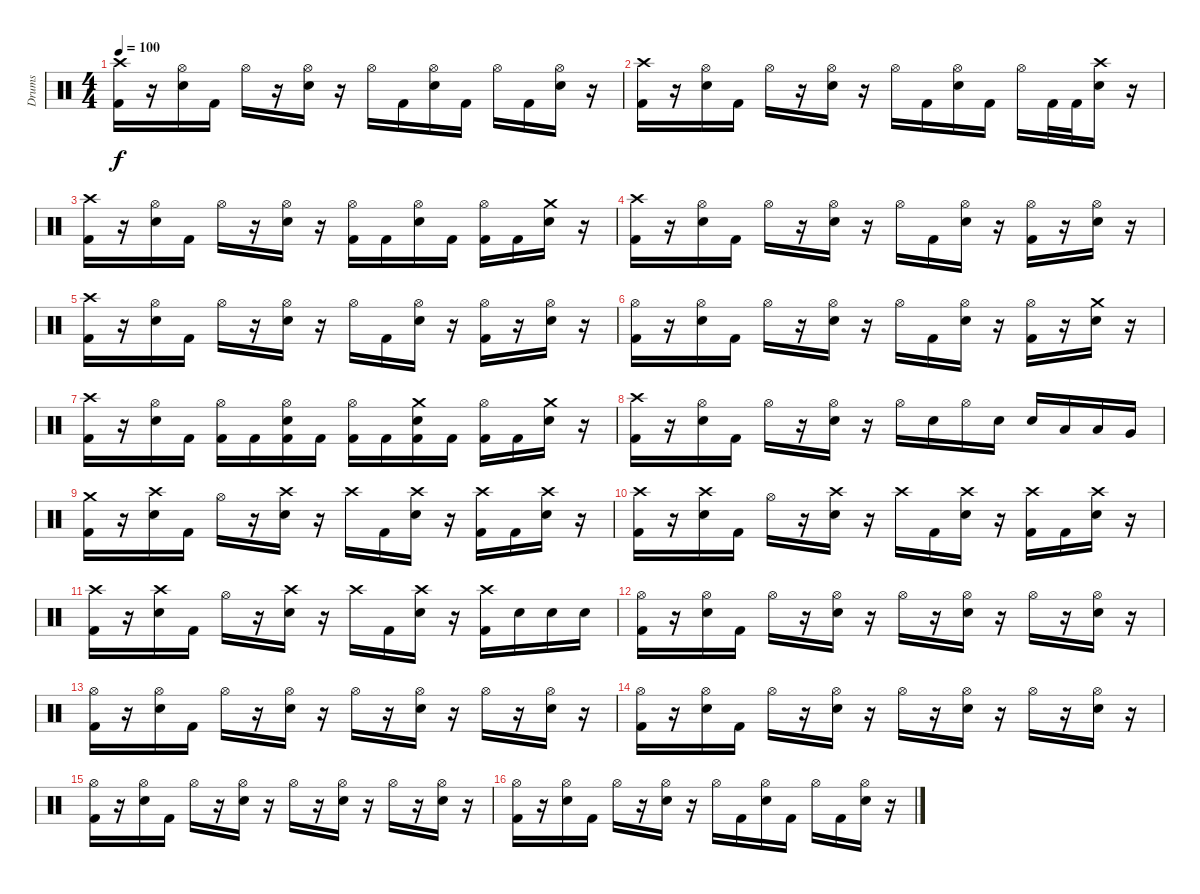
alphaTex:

\track ("Drums" "Drums") {instrument percussion}
\staff {score}
\articulation defaults
\ts (4 4)
\tempo 100
\clef neutral
\ks c
("Crash high (hit)" "Kick (hit) 2").16{dy f} r.16 ("Hi-Hat (open)" "Electric Snare (hit)").16 "Kick (hit) 2".16 "Hi-Hat (open)".16 r.16 ("Hi-Hat (open)" "Electric Snare (hit)").16 r.16 "Hi-Hat (open)".16 "Kick (hit) 2".16 ("Hi-Hat (open)" "Electric Snare (hit)").16 "Kick (hit) 2".16 "Hi-Hat (open)".16 "Kick (hit) 2".16 ("Hi-Hat (open)" "Electric Snare (hit)").16 r.16 |
("Crash high (hit)" "Kick (hit) 2").16 r.16 ("Hi-Hat (open)" "Electric Snare (hit)").16 "Kick (hit) 2".16 "Hi-Hat (open)".16 r.16 ("Hi-Hat (open)" "Electric Snare (hit)").16 r.16 "Hi-Hat (open)".16 "Kick (hit) 2".16 ("Hi-Hat (open)" "Electric Snare (hit)").16 "Kick (hit) 2".16 "Hi-Hat (open)".16 "Kick (hit) 2".32 "Kick (hit) 2".32 ("Crash high (hit)" "Electric Snare (hit)").16 r.16 |
("Crash high (hit)" "Kick (hit) 2").16 r.16 ("Hi-Hat (open)" "Electric Snare (hit)").16 "Kick (hit) 2".16 "Hi-Hat (open)".16 r.16 ("Hi-Hat (open)" "Electric Snare (hit)").16 r.16 ("Hi-Hat (open)" "Kick (hit) 2").16 "Kick (hit) 2".16 ("Hi-Hat (open)" "Electric Snare (hit)").16 "Kick (hit) 2".16 ("Hi-Hat (open)" "Kick (hit) 2").16 "Kick (hit) 2".16 ("Crash medium (hit)" "Electric Snare (hit)").16 r.16 |
("Crash high (hit)" "Kick (hit) 2").16 r.16 ("Hi-Hat (open)" "Electric Snare (hit)").16 "Kick (hit) 2".16 "Hi-Hat (open)".16 r.16 ("Hi-Hat (open)" "Electric Snare (hit)").16 r.16 "Hi-Hat (open)".16 "Kick (hit) 2".16 ("Hi-Hat (open)" "Electric Snare (hit)").16 r.16 ("Hi-Hat (open)" "Kick (hit) 2").16 r.16 ("Hi-Hat (open)" "Electric Snare (hit)").16 r.16 |
("Crash high (hit)" "Kick (hit) 2").16 r.16 ("Hi-Hat (open)" "Electric Snare (hit)").16 "Kick (hit) 2".16 "Hi-Hat (open)".16 r.16 ("Hi-Hat (open)" "Electric Snare (hit)").16 r.16 "Hi-Hat (open)".16 "Kick (hit) 2".16 ("Hi-Hat (open)" "Electric Snare (hit)").16 r.16 ("Hi-Hat (open)" "Kick (hit) 2").16 r.16 ("Hi-Hat (open)" "Electric Snare (hit)").16 r.16 |
("Hi-Hat (open)" "Kick (hit) 2").16 r.16 ("Hi-Hat (open)" "Electric Snare (hit)").16 "Kick (hit) 2".16 "Hi-Hat (open)".16 r.16 ("Hi-Hat (open)" "Electric Snare (hit)").16 r.16 "Hi-Hat (open)".16 "Kick (hit) 2".16 ("Hi-Hat (open)" "Electric Snare (hit)").16 r.16 ("Hi-Hat (open)" "Kick (hit) 2").16 r.16 ("Crash medium (hit)" "Electric Snare (hit)").16 r.16 |
("Crash high (hit)" "Kick (hit) 2").16 r.16 ("Hi-Hat (open)" "Electric Snare (hit)").16 "Kick (hit) 2".16 ("Hi-Hat (open)" "Kick (hit) 2").16 "Kick (hit) 2".16 ("Hi-Hat (open)" "Electric Snare (hit)" "Kick (hit) 2").16 "Kick (hit) 2".16 ("Hi-Hat (open)" "Kick (hit) 2").16 "Kick (hit) 2".16 ("Crash medium (hit)" "Electric Snare (hit)" "Kick (hit) 2").16 "Kick (hit) 2".16 ("Hi-Hat (open)" "Kick (hit) 2").16 "Kick (hit) 2".16 ("Crash medium (hit)" "Electric Snare (hit)").16 r.16 |
("Crash high (hit)" "Kick (hit) 2").16 r.16 ("Hi-Hat (open)" "Electric Snare (hit)").16 "Kick (hit) 2".16 "Hi-Hat (open)".16 r.16 ("Hi-Hat (open)" "Electric Snare (hit)").16 r.16 "Hi-Hat (open)".16 "Electric Snare (hit)".16 "Hi-Hat (open)".16 "Electric Snare (hit)".16 "Electric Snare (hit)".16 "Low Tom (hit)".16 "Low Tom (hit)".16 "Very Low Tom (hit)".16 |
("Crash medium (hit)" "Kick (hit) 2").16 r.16 ("Crash high (hit)" "Electric Snare (hit)").16 "Kick (hit) 2".16 "Hi-Hat (open)".16 r.16 ("Crash high (hit)" "Electric Snare (hit)").16 r.16 "Crash high (hit)".16 "Kick (hit) 2".16 ("Crash high (hit)" "Electric Snare (hit)").16 r.16 ("Crash high (hit)" "Kick (hit) 2").16 "Kick (hit) 2".16 ("Crash high (hit)" "Electric Snare (hit)").16 r.16 |
("Crash high (hit)" "Kick (hit) 2").16 r.16 ("Crash high (hit)" "Electric Snare (hit)").16 "Kick (hit) 2".16 "Hi-Hat (open)".16 r.16 ("Crash high (hit)" "Electric Snare (hit)").16 r.16 "Crash high (hit)".16 "Kick (hit) 2".16 ("Crash high (hit)" "Electric Snare (hit)").16 r.16 ("Crash high (hit)" "Kick (hit) 2").16 "Kick (hit) 2".16 ("Crash high (hit)" "Electric Snare (hit)").16 r.16 |
("Crash high (hit)" "Kick (hit) 2").16 r.16 ("Crash high (hit)" "Electric Snare (hit)").16 "Kick (hit) 2".16 "Hi-Hat (open)".16 r.16 ("Crash high (hit)" "Electric Snare (hit)").16 r.16 "Crash high (hit)".16 "Kick (hit) 2".16 ("Crash high (hit)" "Electric Snare (hit)").16 r.16 ("Crash high (hit)" "Kick (hit) 2").16 "Electric Snare (hit)".16 "Electric Snare (hit)".16 "Electric Snare (hit)".16 |
("Hi-Hat (open)" "Kick (hit) 2").16 r.16 ("Hi-Hat (open)" "Electric Snare (hit)").16 "Kick (hit) 2".16 "Hi-Hat (open)".16 r.16 ("Hi-Hat (open)" "Electric Snare (hit)").16 r.16 "Hi-Hat (open)".16 r.16 ("Hi-Hat (open)" "Electric Snare (hit)").16 r.16 "Hi-Hat (open)".16 r.16 ("Hi-Hat (open)" "Electric Snare (hit)").16 r.16 |
("Hi-Hat (open)" "Kick (hit) 2").16 r.16 ("Hi-Hat (open)" "Electric Snare (hit)").16 "Kick (hit) 2".16 "Hi-Hat (open)".16 r.16 ("Hi-Hat (open)" "Electric Snare (hit)").16 r.16 "Hi-Hat (open)".16 r.16 ("Hi-Hat (open)" "Electric Snare (hit)").16 r.16 "Hi-Hat (open)".16 r.16 ("Hi-Hat (open)" "Electric Snare (hit)").16 r.16 |
("Hi-Hat (open)" "Kick (hit) 2").16 r.16 ("Hi-Hat (open)" "Electric Snare (hit)").16 "Kick (hit) 2".16 "Hi-Hat (open)".16 r.16 ("Hi-Hat (open)" "Electric Snare (hit)").16 r.16 "Hi-Hat (open)".16 r.16 ("Hi-Hat (open)" "Electric Snare (hit)").16 r.16 "Hi-Hat (open)".16 r.16 ("Hi-Hat (open)" "Electric Snare (hit)").16 r.16 |
("Hi-Hat (open)" "Kick (hit) 2").16 r.16 ("Hi-Hat (open)" "Electric Snare (hit)").16 "Kick (hit) 2".16 "Hi-Hat (open)".16 r.16 ("Hi-Hat (open)" "Electric Snare (hit)").16 r.16 "Hi-Hat (open)".16 r.16 ("Hi-Hat (open)" "Electric Snare (hit)").16 r.16 "Hi-Hat (open)".16 r.16 ("Hi-Hat (open)" "Electric Snare (hit)").16 r.16 |
("Hi-Hat (open)" "Kick (hit) 2").16 r.16 ("Hi-Hat (open)" "Electric Snare (hit)").16 "Kick (hit) 2".16 "Hi-Hat (open)".16 r.16 ("Hi-Hat (open)" "Electric Snare (hit)").16 r.16 "Hi-Hat (open)".16 "Kick (hit) 2".16 ("Hi-Hat (open)" "Electric Snare (hit)").16 "Kick (hit) 2".16 "Hi-Hat (open)".16 "Kick (hit) 2".16 ("Hi-Hat (open)" "Electric Snare (hit)").16 r.16
